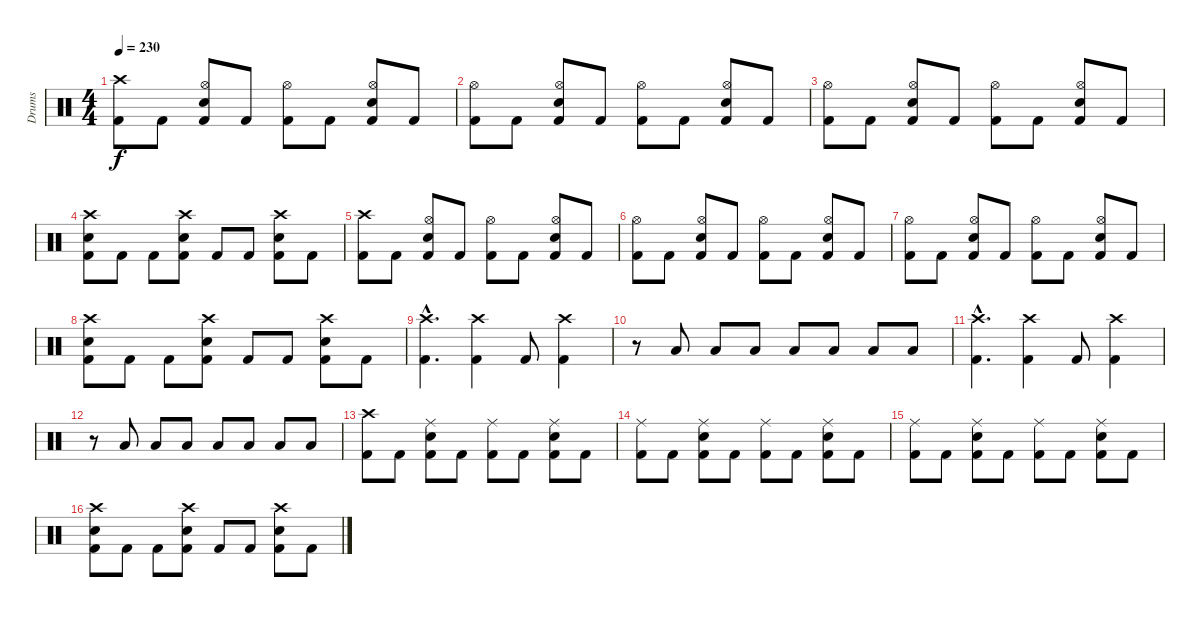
\track ("Drums" "Drums") {instrument percussion}
\staff {score}
\articulation defaults
\ts (4 4)
\tempo 230
\clef neutral
\ks c
("Crash high (hit)" "Kick (hit) 2").8{dy f} "Kick (hit) 2".8 ("Hi-Hat (open)" "Electric Snare (hit)" "Kick (hit) 2").8 "Kick (hit) 2".8 ("Hi-Hat (open)" "Kick (hit) 2").8 "Kick (hit) 2".8 ("Hi-Hat (open)" "Electric Snare (hit)" "Kick (hit) 2").8 "Kick (hit) 2".8 |
("Hi-Hat (open)" "Kick (hit) 2").8 "Kick (hit) 2".8 ("Hi-Hat (open)" "Electric Snare (hit)" "Kick (hit) 2").8 "Kick (hit) 2".8 ("Hi-Hat (open)" "Kick (hit) 2").8 "Kick (hit) 2".8 ("Hi-Hat (open)" "Electric Snare (hit)" "Kick (hit) 2").8 "Kick (hit) 2".8 |
("Hi-Hat (open)" "Kick (hit) 2").8 "Kick (hit) 2".8 ("Hi-Hat (open)" "Electric Snare (hit)" "Kick (hit) 2").8 "Kick (hit) 2".8 ("Hi-Hat (open)" "Kick (hit) 2").8 "Kick (hit) 2".8 ("Hi-Hat (open)" "Electric Snare (hit)" "Kick (hit) 2").8 "Kick (hit) 2".8 |
("Crash high (hit)" "Electric Snare (hit)" "Kick (hit) 2").8 "Kick (hit) 2".8 "Kick (hit) 2".8 ("Crash high (hit)" "Electric Snare (hit)" "Kick (hit) 2").8 "Kick (hit) 2".8 "Kick (hit) 2".8 ("Crash high (hit)" "Electric Snare (hit)" "Kick (hit) 2").8 "Kick (hit) 2".8 |
("Crash high (hit)" "Kick (hit) 2").8 "Kick (hit) 2".8 ("Hi-Hat (open)" "Electric Snare (hit)" "Kick (hit) 2").8 "Kick (hit) 2".8 ("Hi-Hat (open)" "Kick (hit) 2").8 "Kick (hit) 2".8 ("Hi-Hat (open)" "Electric Snare (hit)" "Kick (hit) 2").8 "Kick (hit) 2".8 |
("Hi-Hat (open)" "Kick (hit) 2").8 "Kick (hit) 2".8 ("Hi-Hat (open)" "Electric Snare (hit)" "Kick (hit) 2").8 "Kick (hit) 2".8 ("Hi-Hat (open)" "Kick (hit) 2").8 "Kick (hit) 2".8 ("Hi-Hat (open)" "Electric Snare (hit)" "Kick (hit) 2").8 "Kick (hit) 2".8 |
("Hi-Hat (open)" "Kick (hit) 2").8 "Kick (hit) 2".8 ("Hi-Hat (open)" "Electric Snare (hit)" "Kick (hit) 2").8 "Kick (hit) 2".8 ("Hi-Hat (open)" "Kick (hit) 2").8 "Kick (hit) 2".8 ("Hi-Hat (open)" "Electric Snare (hit)" "Kick (hit) 2").8 "Kick (hit) 2".8 |
("Crash high (hit)" "Electric Snare (hit)" "Kick (hit) 2").8 "Kick (hit) 2".8 "Kick (hit) 2".8 ("Crash high (hit)" "Electric Snare (hit)" "Kick (hit) 2").8 "Kick (hit) 2".8 "Kick (hit) 2".8 ("Crash high (hit)" "Electric Snare (hit)" "Kick (hit) 2").8 "Kick (hit) 2".8 |
("Crash high (hit)"{hac} "Kick (hit) 2"{hac}).4{d} ("Crash high (hit)" "Kick (hit) 2").4 "Kick (hit) 2".8 ("Crash high (hit)" "Kick (hit) 2").4 |
r.8 "Low Tom (hit)".8 "Low Tom (hit)".8 "Low Tom (hit)".8 "Low Tom (hit)".8 "Low Tom (hit)".8 "Low Tom (hit)".8 "Low Tom (hit)".8 |
("Crash high (hit)"{hac} "Kick (hit) 2"{hac}).4{d} ("Crash high (hit)" "Kick (hit) 2").4 "Kick (hit) 2".8 ("Crash high (hit)" "Kick (hit) 2").4 |
r.8 "Low Tom (hit)".8 "Low Tom (hit)".8 "Low Tom (hit)".8 "Low Tom (hit)".8 "Low Tom (hit)".8 "Low Tom (hit)".8 "Low Tom (hit)".8 |
("Crash high (hit)" "Kick (hit) 2").8 "Kick (hit) 2".8 ("Ride (middle)" "Electric Snare (hit)" "Kick (hit) 2").8 "Kick (hit) 2".8 ("Ride (middle)" "Kick (hit) 2").8 "Kick (hit) 2".8 ("Ride (middle)" "Electric Snare (hit)" "Kick (hit) 2").8 "Kick (hit) 2".8 |
("Ride (middle)" "Kick (hit) 2").8 "Kick (hit) 2".8 ("Ride (middle)" "Electric Snare (hit)" "Kick (hit) 2").8 "Kick (hit) 2".8 ("Ride (middle)" "Kick (hit) 2").8 "Kick (hit) 2".8 ("Ride (middle)" "Electric Snare (hit)" "Kick (hit) 2").8 "Kick (hit) 2".8 |
("Ride (middle)" "Kick (hit) 2").8 "Kick (hit) 2".8 ("Ride (middle)" "Electric Snare (hit)" "Kick (hit) 2").8 "Kick (hit) 2".8 ("Ride (middle)" "Kick (hit) 2").8 "Kick (hit) 2".8 ("Ride (middle)" "Electric Snare (hit)" "Kick (hit) 2").8 "Kick (hit) 2".8 |
("Crash high (hit)" "Electric Snare (hit)" "Kick (hit) 2").8 "Kick (hit) 2".8 "Kick (hit) 2".8 ("Crash high (hit)" "Electric Snare (hit)" "Kick (hit) 2").8 "Kick (hit) 2".8 "Kick (hit) 2".8 ("Crash high (hit)" "Electric Snare (hit)" "Kick (hit) 2").8 "Kick (hit) 2".8
